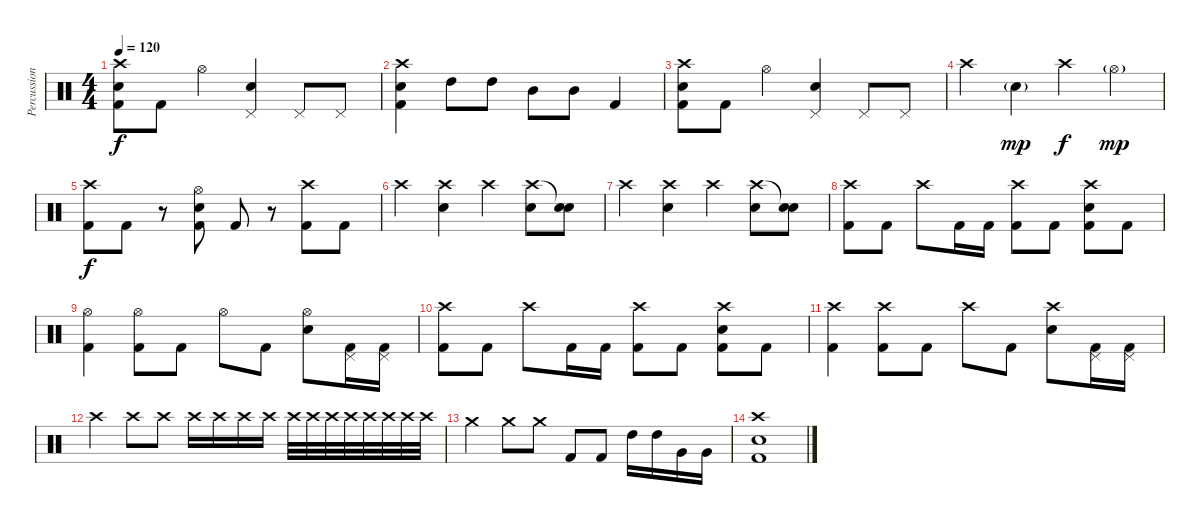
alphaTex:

\track ("Percussion" "Percussion") {instrument percussion}
\staff {score}
\articulation defaults
\ts (4 4)
\tempo 120
\clef neutral
\ks c
("Crash high (hit)" "Electric Snare (hit)" "Kick (hit) 2").8{dy f} "Kick (hit) 2".8 "Hi-Hat (open)".4 ("Electric Snare (hit)" "Pedal Hi-Hat (hit)").4 "Pedal Hi-Hat (hit)".8 "Pedal Hi-Hat (hit)".8 |
("Crash high (hit)" "Electric Snare (hit)" "Kick (hit) 2").4 "High Tom (hit)".8 "High Tom (hit)".8 "Mid Tom (hit)".8 "Mid Tom (hit)".8 "Kick (hit) 2".4 |
("Crash high (hit)" "Electric Snare (hit)" "Kick (hit) 2").8 "Kick (hit) 2".8 "Hi-Hat (open)".4 ("Electric Snare (hit)" "Pedal Hi-Hat (hit)").4 "Pedal Hi-Hat (hit)".8 "Pedal Hi-Hat (hit)".8 |
"Crash high (hit)".4 "Electric Snare (hit)"{g}.4{dy mp} "Crash high (hit)".4{dy f} "Hi-Hat (open)"{g}.4{dy mp} |
("Crash high (hit)" "Kick (hit) 2").8{dy f} "Kick (hit) 2".8 r.8 ("Hi-Hat (open)" "Electric Snare (hit)" "Kick (hit) 2").8 "Kick (hit) 2".8 r.8 ("Crash high (hit)" "Kick (hit) 2").8 "Kick (hit) 2".8 |
"Crash high (hit)".4 ("Crash high (hit)" "Electric Snare (hit)").4 "Crash high (hit)".4 ("Crash high (hit)" "Electric Snare (hit)").8 ("Snare (hit)"{t} "Electric Snare (hit)").8 |
"Crash high (hit)".4 ("Crash high (hit)" "Electric Snare (hit)").4 "Crash high (hit)".4 ("Crash high (hit)" "Electric Snare (hit)").8 ("Snare (hit)"{t} "Electric Snare (hit)").8 |
("Crash high (hit)" "Kick (hit) 2").8 "Kick (hit) 2".8 "Crash high (hit)".8 "Kick (hit) 2".16 "Kick (hit) 2".16 ("Crash high (hit)" "Kick (hit) 2").8 "Kick (hit) 2".8 ("Crash high (hit)" "Electric Snare (hit)" "Kick (hit) 2").8 "Kick (hit) 2".8 |
("Hi-Hat (open)" "Kick (hit) 2").4 ("Hi-Hat (open)" "Kick (hit) 2").8 "Kick (hit) 2".8 "Hi-Hat (open)".8 "Kick (hit) 2".8 ("Hi-Hat (open)" "Electric Snare (hit)").8 ("Pedal Hi-Hat (hit)" "Kick (hit) 2").16 ("Pedal Hi-Hat (hit)" "Kick (hit) 2").16 |
("Crash high (hit)" "Kick (hit) 2").8 "Kick (hit) 2".8 "Crash high (hit)".8 "Kick (hit) 2".16 "Kick (hit) 2".16 ("Crash high (hit)" "Kick (hit) 2").8 "Kick (hit) 2".8 ("Crash high (hit)" "Electric Snare (hit)" "Kick (hit) 2").8 "Kick (hit) 2".8 |
("Crash high (hit)" "Kick (hit) 2").4 ("Crash high (hit)" "Kick (hit) 2").8 "Kick (hit) 2".8 "Crash high (hit)".8 "Kick (hit) 2".8 ("Crash high (hit)" "Electric Snare (hit)").8 ("Pedal Hi-Hat (hit)" "Kick (hit) 2").16 ("Pedal Hi-Hat (hit)" "Kick (hit) 2").16 |
"Crash high (hit)".4 "Crash high (hit)".8 "Crash high (hit)".8 "Crash high (hit)".16 "Crash high (hit)".16 "Crash high (hit)".16 "Crash high (hit)".16 "Crash high (hit)".32 "Crash high (hit)".32 "Crash high (hit)".32 "Crash high (hit)".32 "Crash high (hit)".32 "Crash high (hit)".32 "Crash high (hit)".32 "Crash high (hit)".32 |
"Crash medium (hit)".4 "Crash medium (hit)".8 "Crash medium (hit)".8 "Kick (hit) 2".8 "Kick (hit) 2".8 "High Tom (hit)".16 "High Tom (hit)".16 "Very Low Tom (hit)".16 "Very Low Tom (hit)".16 |
("Crash high (hit)" "Electric Snare (hit)" "Kick (hit) 2").1
